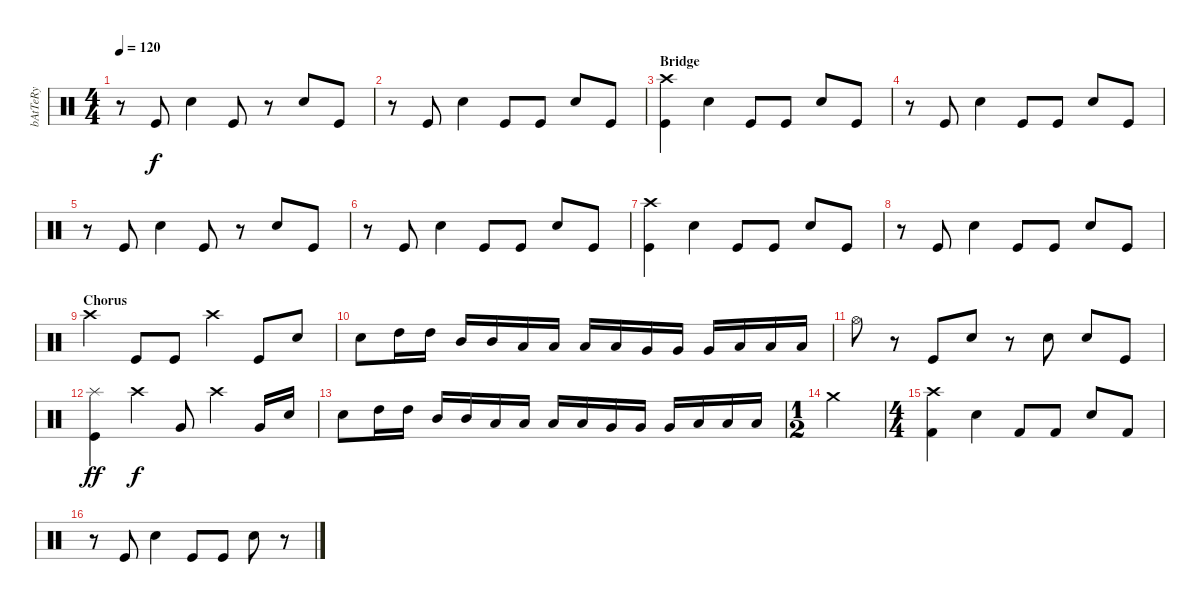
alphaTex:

\track ("bAtTeRy" "bAtTeRy") {instrument percussion}
\staff {score}
\articulation defaults
\ts (4 4)
\tempo 120
\clef neutral
\ks c
r.8{dy f} "Kick (hit)".8 "Electric Snare (hit)".4 "Kick (hit)".8 r.8 "Electric Snare (hit)".8 "Kick (hit)".8 |
r.8 "Kick (hit)".8 "Electric Snare (hit)".4 "Kick (hit)".8 "Kick (hit)".8 "Electric Snare (hit)".8 "Kick (hit)".8 |
\section ("" "Bridge")
("Crash high (hit)" "Kick (hit)").4 "Electric Snare (hit)".4 "Kick (hit)".8 "Kick (hit)".8 "Electric Snare (hit)".8 "Kick (hit)".8 |
r.8 "Kick (hit)".8 "Electric Snare (hit)".4 "Kick (hit)".8 "Kick (hit)".8 "Electric Snare (hit)".8 "Kick (hit)".8 |
r.8 "Kick (hit)".8 "Electric Snare (hit)".4 "Kick (hit)".8 r.8 "Electric Snare (hit)".8 "Kick (hit)".8 |
r.8 "Kick (hit)".8 "Electric Snare (hit)".4 "Kick (hit)".8 "Kick (hit)".8 "Electric Snare (hit)".8 "Kick (hit)".8 |
("Crash high (hit)" "Kick (hit)").4 "Electric Snare (hit)".4 "Kick (hit)".8 "Kick (hit)".8 "Electric Snare (hit)".8 "Kick (hit)".8 |
r.8 "Kick (hit)".8 "Electric Snare (hit)".4 "Kick (hit)".8 "Kick (hit)".8 "Electric Snare (hit)".8 "Kick (hit)".8 |
\section ("" "Chorus")
"Crash high (hit)".4 "Kick (hit)".8 "Kick (hit)".8 "Crash high (hit)".4 "Kick (hit)".8 "Electric Snare (hit)".8 |
"Electric Snare (hit)".8 "High Tom (hit)".16 "High Tom (hit)".16 "Mid Tom (hit)".16 "Mid Tom (hit)".16 "Low Tom (hit)".16 "Low Tom (hit)".16 "Low Tom (hit)".16 "Low Tom (hit)".16 "Very Low Tom (hit)".16 "Very Low Tom (hit)".16 "Very Low Tom (hit)".16 "Low Floor Tom (hit)".16 "Low Floor Tom (hit)".16 "Low Floor Tom (hit)".16 |
"Hi-Hat (open)".8 r.8 "Kick (hit)".8 "Electric Snare (hit)".8 r.8 "Electric Snare (hit)".8 "Electric Snare (hit)".8 "Kick (hit)".8 |
("Splash (hit)" "Kick (hit)").4{dy ff} "Crash high (hit)".4{dy f} "Very Low Tom (hit)".8 "Crash high (hit)".4 "Very Low Tom (hit)".16 "Electric Snare (hit)".16 |
"Electric Snare (hit)".8 "High Tom (hit)".16 "High Tom (hit)".16 "Mid Tom (hit)".16 "Mid Tom (hit)".16 "Low Tom (hit)".16 "Low Tom (hit)".16 "Low Tom (hit)".16 "Low Tom (hit)".16 "Very Low Tom (hit)".16 "Very Low Tom (hit)".16 "Very Low Tom (hit)".16 "Low Floor Tom (hit)".16 "Low Floor Tom (hit)".16 "Low Floor Tom (hit)".16 |
\ts (1 2)
"Crash medium (hit)".2 |
\ts (4 4)
("Crash high (hit)" "Kick (hit) 2").4 "Electric Snare (hit)".4 "Kick (hit) 2".8 "Kick (hit) 2".8 "Electric Snare (hit)".8 "Kick (hit) 2".8 |
r.8 "Kick (hit)".8 "Electric Snare (hit)".4 "Kick (hit)".8 "Kick (hit)".8 "Electric Snare (hit)".8 r.8
